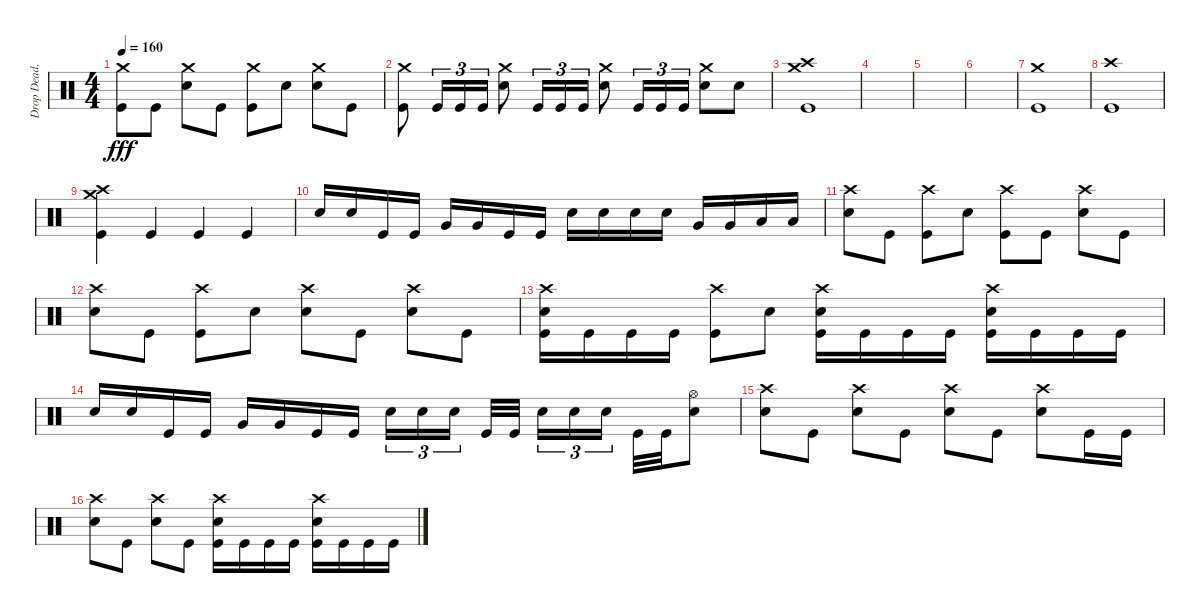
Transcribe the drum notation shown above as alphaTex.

\track ("Drop Dead, Johnny" "Drop Dead,") {instrument percussion}
\staff {score}
\articulation defaults
\ts (4 4)
\tempo 160
\clef neutral
\ks c
("Crash medium (hit)" "Kick (hit)").8{dy fff} "Kick (hit)".8 ("Crash medium (hit)" "Electric Snare (hit)").8 "Kick (hit)".8 ("Crash medium (hit)" "Kick (hit)").8 "Electric Snare (hit)".8 ("Crash medium (hit)" "Electric Snare (hit)").8 "Kick (hit)".8 |
("Crash medium (hit)" "Kick (hit)").8 "Kick (hit)".16{tu (3 2)} "Kick (hit)".16{tu (3 2)} "Kick (hit)".16{tu (3 2)} ("Crash medium (hit)" "Electric Snare (hit)").8 "Kick (hit)".16{tu (3 2)} "Kick (hit)".16{tu (3 2)} "Kick (hit)".16{tu (3 2)} ("Crash medium (hit)" "Electric Snare (hit)").8 "Kick (hit)".16{tu (3 2)} "Kick (hit)".16{tu (3 2)} "Kick (hit)".16{tu (3 2)} ("Crash medium (hit)" "Electric Snare (hit)").8 "Electric Snare (hit)".8 |
("Crash medium (hit)" "Crash high (hit)" "Kick (hit)").1 |
|
|
|
("Crash medium (hit)" "Kick (hit)").1 |
("Crash high (hit)" "Kick (hit)").1 |
("Crash medium (hit)" "Crash high (hit)" "Kick (hit)").4 "Kick (hit)".4 "Kick (hit)".4 "Kick (hit)".4 |
"Electric Snare (hit)".16 "Electric Snare (hit)".16 "Kick (hit)".16 "Kick (hit)".16 "Very Low Tom (hit)".16 "Very Low Tom (hit)".16 "Kick (hit)".16 "Kick (hit)".16 "Electric Snare (hit)".16 "Electric Snare (hit)".16 "Electric Snare (hit)".16 "Electric Snare (hit)".16 "Very Low Tom (hit)".16 "Very Low Tom (hit)".16 "Low Floor Tom (hit)".16 "Low Floor Tom (hit)".16 |
("Crash high (hit)" "Electric Snare (hit)").8 "Kick (hit)".8 ("Crash high (hit)" "Kick (hit)").8 "Electric Snare (hit)".8 ("Crash high (hit)" "Kick (hit)").8 "Kick (hit)".8 ("Crash high (hit)" "Electric Snare (hit)").8 "Kick (hit)".8 |
("Crash high (hit)" "Electric Snare (hit)").8 "Kick (hit)".8 ("Crash high (hit)" "Kick (hit)").8 "Electric Snare (hit)".8 ("Crash high (hit)" "Electric Snare (hit)").8 "Kick (hit)".8 ("Crash high (hit)" "Electric Snare (hit)").8 "Kick (hit)".8 |
("Crash high (hit)" "Electric Snare (hit)" "Kick (hit)").16 "Kick (hit)".16 "Kick (hit)".16 "Kick (hit)".16 ("Crash high (hit)" "Kick (hit)").8 "Electric Snare (hit)".8 ("Crash high (hit)" "Electric Snare (hit)" "Kick (hit)").16 "Kick (hit)".16 "Kick (hit)".16 "Kick (hit)".16 ("Crash high (hit)" "Electric Snare (hit)" "Kick (hit)").16 "Kick (hit)".16 "Kick (hit)".16 "Kick (hit)".16 |
"Electric Snare (hit)".16 "Electric Snare (hit)".16 "Kick (hit)".16 "Kick (hit)".16 "Very Low Tom (hit)".16 "Very Low Tom (hit)".16 "Kick (hit)".16 "Kick (hit)".16 "Electric Snare (hit)".16{tu (3 2)} "Electric Snare (hit)".16{tu (3 2)} "Electric Snare (hit)".16{tu (3 2) beam splitsecondary} "Kick (hit)".32 "Kick (hit)".32{beam splitsecondary} "Electric Snare (hit)".16{tu (3 2)} "Electric Snare (hit)".16{tu (3 2)} "Electric Snare (hit)".16{tu (3 2) beam splitsecondary} "Kick (hit)".32 "Kick (hit)".32 ("Hi-Hat (open)" "Electric Snare (hit)").8 |
("Crash high (hit)" "Electric Snare (hit)").8 "Kick (hit)".8 ("Crash high (hit)" "Electric Snare (hit)").8 "Kick (hit)".8 ("Crash high (hit)" "Electric Snare (hit)").8 "Kick (hit)".8 ("Crash high (hit)" "Electric Snare (hit)").8 "Kick (hit)".16 "Kick (hit)".16 |
("Crash high (hit)" "Electric Snare (hit)").8 "Kick (hit)".8 ("Crash high (hit)" "Electric Snare (hit)").8 "Kick (hit)".8 ("Crash high (hit)" "Electric Snare (hit)" "Kick (hit)").16 "Kick (hit)".16 "Kick (hit)".16 "Kick (hit)".16 ("Crash high (hit)" "Electric Snare (hit)" "Kick (hit)").16 "Kick (hit)".16 "Kick (hit)".16 "Kick (hit)".16
